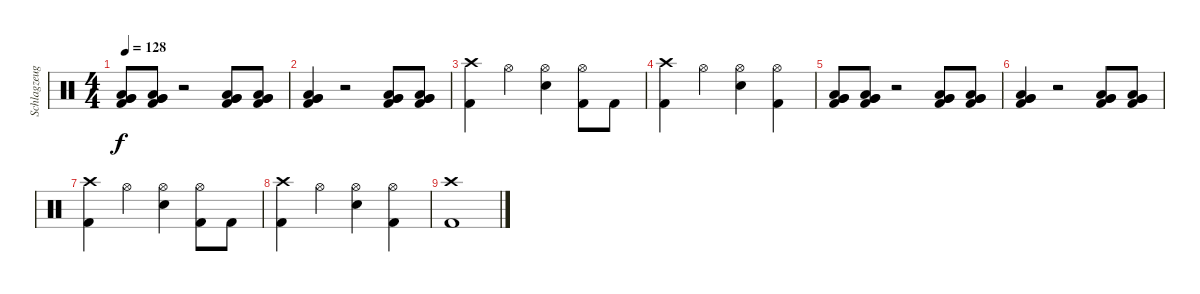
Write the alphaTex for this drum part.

\track ("Schlagzeug" "Schlagzeug") {instrument percussion}
\staff {score}
\articulation defaults
\ts (4 4)
\tempo 128
\clef neutral
\ks c
("Very Low Tom (hit)" "Very Low Tom (hit)" "Low Floor Tom (hit)" "Kick (hit) 2").8{dy f} ("Very Low Tom (hit)" "Very Low Tom (hit)" "Low Floor Tom (hit)" "Kick (hit) 2").8 r.2 ("Very Low Tom (hit)" "Very Low Tom (hit)" "Low Floor Tom (hit)" "Kick (hit) 2").8 ("Very Low Tom (hit)" "Very Low Tom (hit)" "Low Floor Tom (hit)" "Kick (hit) 2").8 |
("Very Low Tom (hit)" "Very Low Tom (hit)" "Low Floor Tom (hit)" "Kick (hit) 2").4 r.2 ("Very Low Tom (hit)" "Very Low Tom (hit)" "Low Floor Tom (hit)" "Kick (hit) 2").8 ("Very Low Tom (hit)" "Very Low Tom (hit)" "Low Floor Tom (hit)" "Kick (hit) 2").8 |
("Crash high (hit)" "Kick (hit) 2").4 "Hi-Hat (open)".4 ("Hi-Hat (open)" "Snare (hit) 2").4 ("Hi-Hat (open)" "Kick (hit) 2").8 "Kick (hit) 2".8 |
("Crash high (hit)" "Kick (hit) 2").4 "Hi-Hat (open)".4 ("Hi-Hat (open)" "Snare (hit) 2").4 ("Hi-Hat (open)" "Kick (hit) 2").4 |
("Very Low Tom (hit)" "Very Low Tom (hit)" "Low Floor Tom (hit)" "Kick (hit) 2").8 ("Very Low Tom (hit)" "Very Low Tom (hit)" "Low Floor Tom (hit)" "Kick (hit) 2").8 r.2 ("Very Low Tom (hit)" "Very Low Tom (hit)" "Low Floor Tom (hit)" "Kick (hit) 2").8 ("Very Low Tom (hit)" "Very Low Tom (hit)" "Low Floor Tom (hit)" "Kick (hit) 2").8 |
("Very Low Tom (hit)" "Very Low Tom (hit)" "Low Floor Tom (hit)" "Kick (hit) 2").4 r.2 ("Very Low Tom (hit)" "Very Low Tom (hit)" "Low Floor Tom (hit)" "Kick (hit) 2").8 ("Very Low Tom (hit)" "Very Low Tom (hit)" "Low Floor Tom (hit)" "Kick (hit) 2").8 |
("Crash high (hit)" "Kick (hit) 2").4 "Hi-Hat (open)".4 ("Hi-Hat (open)" "Snare (hit) 2").4 ("Hi-Hat (open)" "Kick (hit) 2").8 "Kick (hit) 2".8 |
("Crash high (hit)" "Kick (hit) 2").4 "Hi-Hat (open)".4 ("Hi-Hat (open)" "Snare (hit) 2").4 ("Hi-Hat (open)" "Kick (hit) 2").4 |
("Crash high (hit)" "Kick (hit) 2").1
